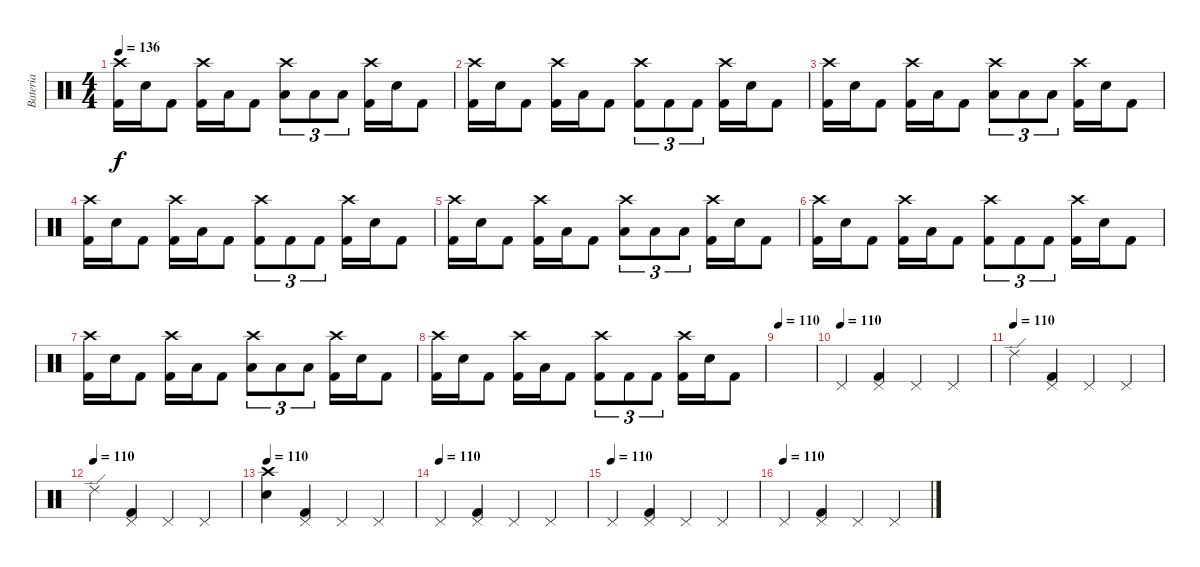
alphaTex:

\track ("Bateria" "Bateria") {instrument percussion}
\staff {score}
\articulation defaults
\ts (4 4)
\tempo 136
\clef neutral
\ks c
("Crash high (hit)" "Kick (hit) 2").16{dy f} "Electric Snare (hit)".16 "Kick (hit) 2".8 ("Crash high (hit)" "Kick (hit) 2").16 "Low Floor Tom (hit)".16 "Kick (hit) 2".8 ("Crash high (hit)" "Low Floor Tom (hit)").8{tu (3 2)} "Low Floor Tom (hit)".8{tu (3 2)} "Low Floor Tom (hit)".8{tu (3 2)} ("Crash high (hit)" "Kick (hit) 2").16 "Electric Snare (hit)".16 "Kick (hit) 2".8 |
("Crash high (hit)" "Kick (hit) 2").16 "Electric Snare (hit)".16 "Kick (hit) 2".8 ("Crash high (hit)" "Kick (hit) 2").16 "Low Floor Tom (hit)".16 "Kick (hit) 2".8 ("Crash high (hit)" "Kick (hit) 2").8{tu (3 2)} "Kick (hit) 2".8{tu (3 2)} "Kick (hit) 2".8{tu (3 2)} ("Crash high (hit)" "Kick (hit) 2").16 "Electric Snare (hit)".16 "Kick (hit) 2".8 |
("Crash high (hit)" "Kick (hit) 2").16 "Electric Snare (hit)".16 "Kick (hit) 2".8 ("Crash high (hit)" "Kick (hit) 2").16 "Low Floor Tom (hit)".16 "Kick (hit) 2".8 ("Crash high (hit)" "Low Floor Tom (hit)").8{tu (3 2)} "Low Floor Tom (hit)".8{tu (3 2)} "Low Floor Tom (hit)".8{tu (3 2)} ("Crash high (hit)" "Kick (hit) 2").16 "Electric Snare (hit)".16 "Kick (hit) 2".8 |
("Crash high (hit)" "Kick (hit) 2").16 "Electric Snare (hit)".16 "Kick (hit) 2".8 ("Crash high (hit)" "Kick (hit) 2").16 "Low Floor Tom (hit)".16 "Kick (hit) 2".8 ("Crash high (hit)" "Kick (hit) 2").8{tu (3 2)} "Kick (hit) 2".8{tu (3 2)} "Kick (hit) 2".8{tu (3 2)} ("Crash high (hit)" "Kick (hit) 2").16 "Electric Snare (hit)".16 "Kick (hit) 2".8 |
("Crash high (hit)" "Kick (hit) 2").16 "Electric Snare (hit)".16 "Kick (hit) 2".8 ("Crash high (hit)" "Kick (hit) 2").16 "Low Floor Tom (hit)".16 "Kick (hit) 2".8 ("Crash high (hit)" "Low Floor Tom (hit)").8{tu (3 2)} "Low Floor Tom (hit)".8{tu (3 2)} "Low Floor Tom (hit)".8{tu (3 2)} ("Crash high (hit)" "Kick (hit) 2").16 "Electric Snare (hit)".16 "Kick (hit) 2".8 |
("Crash high (hit)" "Kick (hit) 2").16 "Electric Snare (hit)".16 "Kick (hit) 2".8 ("Crash high (hit)" "Kick (hit) 2").16 "Low Floor Tom (hit)".16 "Kick (hit) 2".8 ("Crash high (hit)" "Kick (hit) 2").8{tu (3 2)} "Kick (hit) 2".8{tu (3 2)} "Kick (hit) 2".8{tu (3 2)} ("Crash high (hit)" "Kick (hit) 2").16 "Electric Snare (hit)".16 "Kick (hit) 2".8 |
("Crash high (hit)" "Kick (hit) 2").16 "Electric Snare (hit)".16 "Kick (hit) 2".8 ("Crash high (hit)" "Kick (hit) 2").16 "Low Floor Tom (hit)".16 "Kick (hit) 2".8 ("Crash high (hit)" "Low Floor Tom (hit)").8{tu (3 2)} "Low Floor Tom (hit)".8{tu (3 2)} "Low Floor Tom (hit)".8{tu (3 2)} ("Crash high (hit)" "Kick (hit) 2").16 "Electric Snare (hit)".16 "Kick (hit) 2".8 |
("Crash high (hit)" "Kick (hit) 2").16 "Electric Snare (hit)".16 "Kick (hit) 2".8 ("Crash high (hit)" "Kick (hit) 2").16 "Low Floor Tom (hit)".16 "Kick (hit) 2".8 ("Crash high (hit)" "Kick (hit) 2").8{tu (3 2)} "Kick (hit) 2".8{tu (3 2)} "Kick (hit) 2".8{tu (3 2)} ("Crash high (hit)" "Kick (hit) 2").16 "Electric Snare (hit)".16 "Kick (hit) 2".8 |
\tempo 110
|
\tempo (110)
"Pedal Hi-Hat (hit)".4 ("Pedal Hi-Hat (hit)" "Kick (hit) 2").4 "Pedal Hi-Hat (hit)".4 "Pedal Hi-Hat (hit)".4 |
\tempo (110)
"Ride (edge) 2".4 ("Pedal Hi-Hat (hit)" "Kick (hit) 2").4 "Pedal Hi-Hat (hit)".4 "Pedal Hi-Hat (hit)".4 |
\tempo (110)
"Ride (edge) 2".4 ("Pedal Hi-Hat (hit)" "Kick (hit) 2").4 "Pedal Hi-Hat (hit)".4 "Pedal Hi-Hat (hit)".4 |
\tempo 110
("Snare (hit) 2" "Crash high (hit)").4 ("Pedal Hi-Hat (hit)" "Kick (hit) 2").4 "Pedal Hi-Hat (hit)".4 "Pedal Hi-Hat (hit)".4 |
\tempo (110)
"Pedal Hi-Hat (hit)".4 ("Pedal Hi-Hat (hit)" "Kick (hit) 2").4 "Pedal Hi-Hat (hit)".4 "Pedal Hi-Hat (hit)".4 |
\tempo (110)
"Pedal Hi-Hat (hit)".4 ("Pedal Hi-Hat (hit)" "Kick (hit) 2").4 "Pedal Hi-Hat (hit)".4 "Pedal Hi-Hat (hit)".4 |
\tempo (110)
"Pedal Hi-Hat (hit)".4 ("Pedal Hi-Hat (hit)" "Kick (hit) 2").4 "Pedal Hi-Hat (hit)".4 "Pedal Hi-Hat (hit)".4
